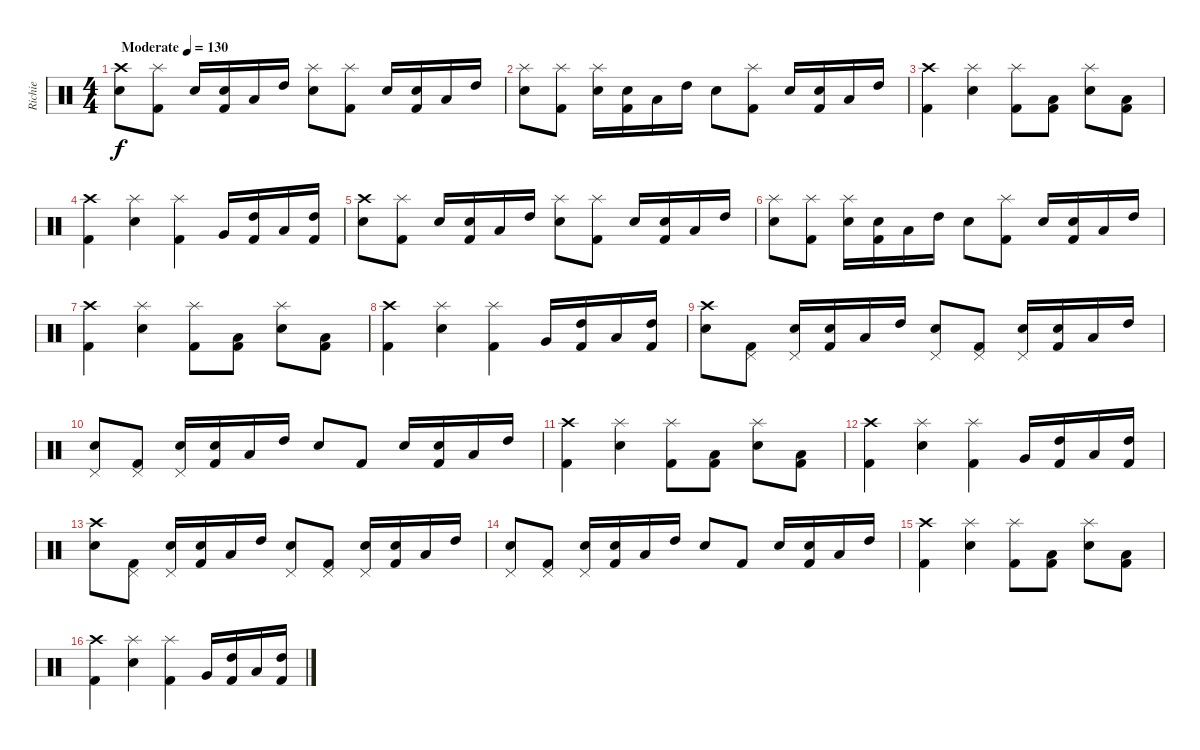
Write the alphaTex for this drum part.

\track ("Richie" "Richie") {instrument percussion}
\staff {score}
\articulation defaults
\ts (4 4)
\tempo (130 "Moderate")
\clef neutral
\ks c
("Crash high (hit)" "Snare (hit) 2").8{dy f} ("Splash (hit)" "Kick (hit) 2").8 "Electric Snare (hit)".16 ("Electric Snare (hit)" "Kick (hit) 2").16 "Low Tom (hit)".16 "High Tom (hit)".16 ("Splash (hit)" "Snare (hit) 2").8 ("Splash (hit)" "Kick (hit) 2").8 "Electric Snare (hit)".16 ("Electric Snare (hit)" "Kick (hit) 2").16 "Low Tom (hit)".16 "High Tom (hit)".16 |
("Splash (hit)" "Snare (hit) 2").8 ("Splash (hit)" "Kick (hit) 2").8 ("Splash (hit)" "Electric Snare (hit)").16 ("Electric Snare (hit)" "Kick (hit) 2").16 "Low Tom (hit)".16 "High Tom (hit)".16 "Snare (hit) 2".8 ("Splash (hit)" "Kick (hit) 2").8 "Electric Snare (hit)".16 ("Electric Snare (hit)" "Kick (hit) 2").16 "Low Tom (hit)".16 "High Tom (hit)".16 |
("Crash high (hit)" "Kick (hit) 2").4 ("Splash (hit)" "Electric Snare (hit)").4 ("Splash (hit)" "Kick (hit) 2").8 ("Low Tom (hit)" "Kick (hit) 2").8 ("Splash (hit)" "Electric Snare (hit)").8 ("Low Tom (hit)" "Kick (hit) 2").8 |
("Crash high (hit)" "Kick (hit) 2").4 ("Splash (hit)" "Electric Snare (hit)").4 ("Splash (hit)" "Kick (hit) 2").4 "Very Low Tom (hit)".16 ("High Tom (hit)" "Kick (hit) 2").16 "Low Tom (hit)".16 ("High Tom (hit)" "Kick (hit) 2").16 |
("Crash high (hit)" "Snare (hit) 2").8 ("Splash (hit)" "Kick (hit) 2").8 "Electric Snare (hit)".16 ("Electric Snare (hit)" "Kick (hit) 2").16 "Low Tom (hit)".16 "High Tom (hit)".16 ("Splash (hit)" "Snare (hit) 2").8 ("Splash (hit)" "Kick (hit) 2").8 "Electric Snare (hit)".16 ("Electric Snare (hit)" "Kick (hit) 2").16 "Low Tom (hit)".16 "High Tom (hit)".16 |
("Splash (hit)" "Snare (hit) 2").8 ("Splash (hit)" "Kick (hit) 2").8 ("Splash (hit)" "Electric Snare (hit)").16 ("Electric Snare (hit)" "Kick (hit) 2").16 "Low Tom (hit)".16 "High Tom (hit)".16 "Snare (hit) 2".8 ("Splash (hit)" "Kick (hit) 2").8 "Electric Snare (hit)".16 ("Electric Snare (hit)" "Kick (hit) 2").16 "Low Tom (hit)".16 "High Tom (hit)".16 |
("Crash high (hit)" "Kick (hit) 2").4 ("Splash (hit)" "Electric Snare (hit)").4 ("Splash (hit)" "Kick (hit) 2").8 ("Low Tom (hit)" "Kick (hit) 2").8 ("Splash (hit)" "Electric Snare (hit)").8 ("Low Tom (hit)" "Kick (hit) 2").8 |
("Crash high (hit)" "Kick (hit) 2").4 ("Splash (hit)" "Electric Snare (hit)").4 ("Splash (hit)" "Kick (hit) 2").4 "Very Low Tom (hit)".16 ("High Tom (hit)" "Kick (hit) 2").16 "Low Tom (hit)".16 ("High Tom (hit)" "Kick (hit) 2").16 |
("Crash high (hit)" "Snare (hit) 2").8 ("Pedal Hi-Hat (hit)" "Kick (hit) 2").8 ("Pedal Hi-Hat (hit)" "Electric Snare (hit)").16 ("Electric Snare (hit)" "Kick (hit) 2").16 "Low Tom (hit)".16 "High Tom (hit)".16 ("Pedal Hi-Hat (hit)" "Snare (hit) 2").8 ("Pedal Hi-Hat (hit)" "Kick (hit) 2").8 ("Pedal Hi-Hat (hit)" "Electric Snare (hit)").16 ("Electric Snare (hit)" "Kick (hit) 2").16 "Low Tom (hit)".16 "High Tom (hit)".16 |
("Pedal Hi-Hat (hit)" "Snare (hit) 2").8 ("Pedal Hi-Hat (hit)" "Kick (hit) 2").8 ("Pedal Hi-Hat (hit)" "Electric Snare (hit)").16 ("Electric Snare (hit)" "Kick (hit) 2").16 "Low Tom (hit)".16 "High Tom (hit)".16 "Snare (hit) 2".8 "Kick (hit) 2".8 "Electric Snare (hit)".16 ("Electric Snare (hit)" "Kick (hit) 2").16 "Low Tom (hit)".16 "High Tom (hit)".16 |
("Crash high (hit)" "Kick (hit) 2").4 ("Splash (hit)" "Electric Snare (hit)").4 ("Splash (hit)" "Kick (hit) 2").8 ("Low Tom (hit)" "Kick (hit) 2").8 ("Splash (hit)" "Electric Snare (hit)").8 ("Low Tom (hit)" "Kick (hit) 2").8 |
("Crash high (hit)" "Kick (hit) 2").4 ("Splash (hit)" "Electric Snare (hit)").4 ("Splash (hit)" "Kick (hit) 2").4 "Very Low Tom (hit)".16 ("High Tom (hit)" "Kick (hit) 2").16 "Low Tom (hit)".16 ("High Tom (hit)" "Kick (hit) 2").16 |
("Crash high (hit)" "Snare (hit) 2").8 ("Pedal Hi-Hat (hit)" "Kick (hit) 2").8 ("Pedal Hi-Hat (hit)" "Electric Snare (hit)").16 ("Electric Snare (hit)" "Kick (hit) 2").16 "Low Tom (hit)".16 "High Tom (hit)".16 ("Pedal Hi-Hat (hit)" "Snare (hit) 2").8 ("Pedal Hi-Hat (hit)" "Kick (hit) 2").8 ("Pedal Hi-Hat (hit)" "Electric Snare (hit)").16 ("Electric Snare (hit)" "Kick (hit) 2").16 "Low Tom (hit)".16 "High Tom (hit)".16 |
("Pedal Hi-Hat (hit)" "Snare (hit) 2").8 ("Pedal Hi-Hat (hit)" "Kick (hit) 2").8 ("Pedal Hi-Hat (hit)" "Electric Snare (hit)").16 ("Electric Snare (hit)" "Kick (hit) 2").16 "Low Tom (hit)".16 "High Tom (hit)".16 "Snare (hit) 2".8 "Kick (hit) 2".8 "Electric Snare (hit)".16 ("Electric Snare (hit)" "Kick (hit) 2").16 "Low Tom (hit)".16 "High Tom (hit)".16 |
("Crash high (hit)" "Kick (hit) 2").4 ("Splash (hit)" "Electric Snare (hit)").4 ("Splash (hit)" "Kick (hit) 2").8 ("Low Tom (hit)" "Kick (hit) 2").8 ("Splash (hit)" "Electric Snare (hit)").8 ("Low Tom (hit)" "Kick (hit) 2").8 |
("Crash high (hit)" "Kick (hit) 2").4 ("Splash (hit)" "Electric Snare (hit)").4 ("Splash (hit)" "Kick (hit) 2").4 "Very Low Tom (hit)".16 ("High Tom (hit)" "Kick (hit) 2").16 "Low Tom (hit)".16 ("High Tom (hit)" "Kick (hit) 2").16
